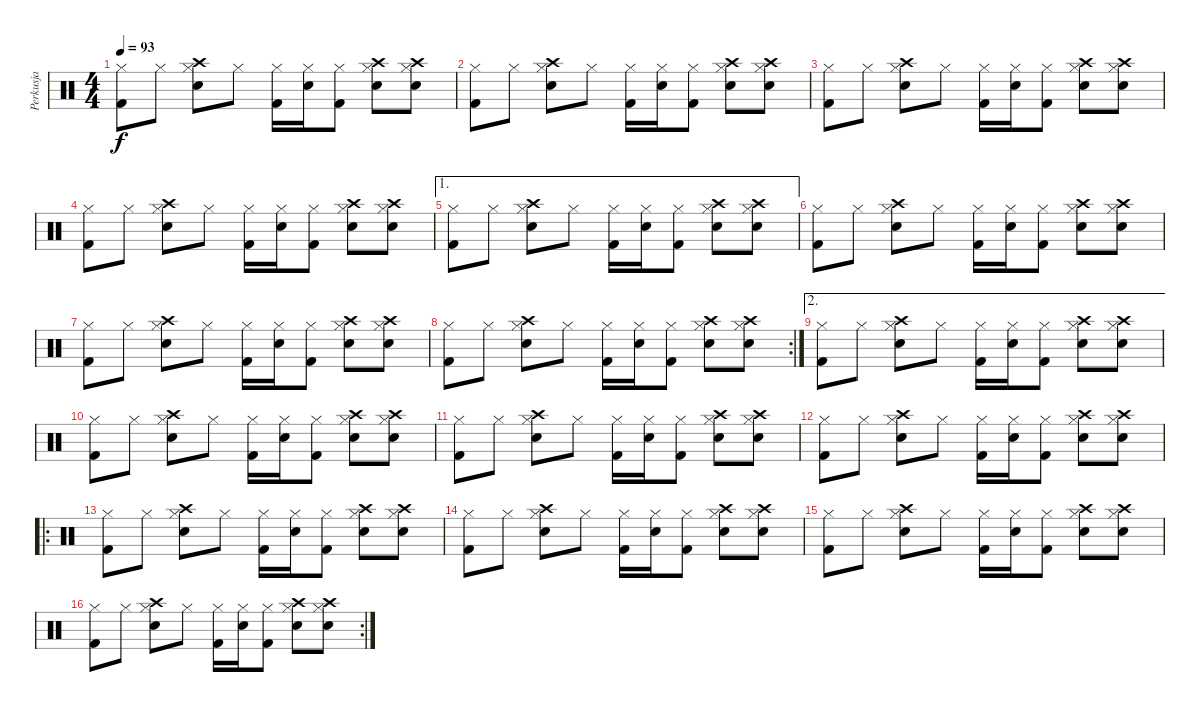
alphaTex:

\track ("Perkusja" "Perkusja") {instrument percussion}
\staff {score}
\articulation defaults
\ts (4 4)
\tempo 93
\clef neutral
\ks c
("Hi-Hat (closed)" "Kick (hit) 2").8{dy f} "Hi-Hat (closed)".8 ("Hi-Hat (closed)" "Electric Snare (hit)" "Crash high (hit)").8 "Hi-Hat (closed)".8 ("Hi-Hat (closed)" "Kick (hit) 2").16 ("Hi-Hat (closed)" "Electric Snare (hit)").16 ("Hi-Hat (closed)" "Kick (hit) 2").8 ("Hi-Hat (closed)" "Electric Snare (hit)" "Crash high (hit)").8 ("Hi-Hat (closed)" "Electric Snare (hit)" "Crash high (hit)").8 |
("Hi-Hat (closed)" "Kick (hit) 2").8 "Hi-Hat (closed)".8 ("Hi-Hat (closed)" "Electric Snare (hit)" "Crash high (hit)").8 "Hi-Hat (closed)".8 ("Hi-Hat (closed)" "Kick (hit) 2").16 ("Hi-Hat (closed)" "Electric Snare (hit)").16 ("Hi-Hat (closed)" "Kick (hit) 2").8 ("Hi-Hat (closed)" "Electric Snare (hit)" "Crash high (hit)").8 ("Hi-Hat (closed)" "Electric Snare (hit)" "Crash high (hit)").8 |
("Hi-Hat (closed)" "Kick (hit) 2").8 "Hi-Hat (closed)".8 ("Hi-Hat (closed)" "Electric Snare (hit)" "Crash high (hit)").8 "Hi-Hat (closed)".8 ("Hi-Hat (closed)" "Kick (hit) 2").16 ("Hi-Hat (closed)" "Electric Snare (hit)").16 ("Hi-Hat (closed)" "Kick (hit) 2").8 ("Hi-Hat (closed)" "Electric Snare (hit)" "Crash high (hit)").8 ("Hi-Hat (closed)" "Electric Snare (hit)" "Crash high (hit)").8 |
("Hi-Hat (closed)" "Kick (hit) 2").8 "Hi-Hat (closed)".8 ("Hi-Hat (closed)" "Electric Snare (hit)" "Crash high (hit)").8 "Hi-Hat (closed)".8 ("Hi-Hat (closed)" "Kick (hit) 2").16 ("Hi-Hat (closed)" "Electric Snare (hit)").16 ("Hi-Hat (closed)" "Kick (hit) 2").8 ("Hi-Hat (closed)" "Electric Snare (hit)" "Crash high (hit)").8 ("Hi-Hat (closed)" "Electric Snare (hit)" "Crash high (hit)").8 |
\ae 1
("Hi-Hat (closed)" "Kick (hit) 2").8 "Hi-Hat (closed)".8 ("Hi-Hat (closed)" "Electric Snare (hit)" "Crash high (hit)").8 "Hi-Hat (closed)".8 ("Hi-Hat (closed)" "Kick (hit) 2").16 ("Hi-Hat (closed)" "Electric Snare (hit)").16 ("Hi-Hat (closed)" "Kick (hit) 2").8 ("Hi-Hat (closed)" "Electric Snare (hit)" "Crash high (hit)").8 ("Hi-Hat (closed)" "Electric Snare (hit)" "Crash high (hit)").8 |
("Hi-Hat (closed)" "Kick (hit) 2").8 "Hi-Hat (closed)".8 ("Hi-Hat (closed)" "Electric Snare (hit)" "Crash high (hit)").8 "Hi-Hat (closed)".8 ("Hi-Hat (closed)" "Kick (hit) 2").16 ("Hi-Hat (closed)" "Electric Snare (hit)").16 ("Hi-Hat (closed)" "Kick (hit) 2").8 ("Hi-Hat (closed)" "Electric Snare (hit)" "Crash high (hit)").8 ("Hi-Hat (closed)" "Electric Snare (hit)" "Crash high (hit)").8 |
("Hi-Hat (closed)" "Kick (hit) 2").8 "Hi-Hat (closed)".8 ("Hi-Hat (closed)" "Electric Snare (hit)" "Crash high (hit)").8 "Hi-Hat (closed)".8 ("Hi-Hat (closed)" "Kick (hit) 2").16 ("Hi-Hat (closed)" "Electric Snare (hit)").16 ("Hi-Hat (closed)" "Kick (hit) 2").8 ("Hi-Hat (closed)" "Electric Snare (hit)" "Crash high (hit)").8 ("Hi-Hat (closed)" "Electric Snare (hit)" "Crash high (hit)").8 |
\rc 2
("Hi-Hat (closed)" "Kick (hit) 2").8 "Hi-Hat (closed)".8 ("Hi-Hat (closed)" "Electric Snare (hit)" "Crash high (hit)").8 "Hi-Hat (closed)".8 ("Hi-Hat (closed)" "Kick (hit) 2").16 ("Hi-Hat (closed)" "Electric Snare (hit)").16 ("Hi-Hat (closed)" "Kick (hit) 2").8 ("Hi-Hat (closed)" "Electric Snare (hit)" "Crash high (hit)").8 ("Hi-Hat (closed)" "Electric Snare (hit)" "Crash high (hit)").8 |
\ae 2
("Hi-Hat (closed)" "Kick (hit) 2").8 "Hi-Hat (closed)".8 ("Hi-Hat (closed)" "Electric Snare (hit)" "Crash high (hit)").8 "Hi-Hat (closed)".8 ("Hi-Hat (closed)" "Kick (hit) 2").16 ("Hi-Hat (closed)" "Electric Snare (hit)").16 ("Hi-Hat (closed)" "Kick (hit) 2").8 ("Hi-Hat (closed)" "Electric Snare (hit)" "Crash high (hit)").8 ("Hi-Hat (closed)" "Electric Snare (hit)" "Crash high (hit)").8 |
("Hi-Hat (closed)" "Kick (hit) 2").8 "Hi-Hat (closed)".8 ("Hi-Hat (closed)" "Electric Snare (hit)" "Crash high (hit)").8 "Hi-Hat (closed)".8 ("Hi-Hat (closed)" "Kick (hit) 2").16 ("Hi-Hat (closed)" "Electric Snare (hit)").16 ("Hi-Hat (closed)" "Kick (hit) 2").8 ("Hi-Hat (closed)" "Electric Snare (hit)" "Crash high (hit)").8 ("Hi-Hat (closed)" "Electric Snare (hit)" "Crash high (hit)").8 |
("Hi-Hat (closed)" "Kick (hit) 2").8 "Hi-Hat (closed)".8 ("Hi-Hat (closed)" "Electric Snare (hit)" "Crash high (hit)").8 "Hi-Hat (closed)".8 ("Hi-Hat (closed)" "Kick (hit) 2").16 ("Hi-Hat (closed)" "Electric Snare (hit)").16 ("Hi-Hat (closed)" "Kick (hit) 2").8 ("Hi-Hat (closed)" "Electric Snare (hit)" "Crash high (hit)").8 ("Hi-Hat (closed)" "Electric Snare (hit)" "Crash high (hit)").8 |
("Hi-Hat (closed)" "Kick (hit) 2").8 "Hi-Hat (closed)".8 ("Hi-Hat (closed)" "Electric Snare (hit)" "Crash high (hit)").8 "Hi-Hat (closed)".8 ("Hi-Hat (closed)" "Kick (hit) 2").16 ("Hi-Hat (closed)" "Electric Snare (hit)").16 ("Hi-Hat (closed)" "Kick (hit) 2").8 ("Hi-Hat (closed)" "Electric Snare (hit)" "Crash high (hit)").8 ("Hi-Hat (closed)" "Electric Snare (hit)" "Crash high (hit)").8 |
\ro
("Hi-Hat (closed)" "Kick (hit) 2").8 "Hi-Hat (closed)".8 ("Hi-Hat (closed)" "Electric Snare (hit)" "Crash high (hit)").8 "Hi-Hat (closed)".8 ("Hi-Hat (closed)" "Kick (hit) 2").16 ("Hi-Hat (closed)" "Electric Snare (hit)").16 ("Hi-Hat (closed)" "Kick (hit) 2").8 ("Hi-Hat (closed)" "Electric Snare (hit)" "Crash high (hit)").8 ("Hi-Hat (closed)" "Electric Snare (hit)" "Crash high (hit)").8 |
("Hi-Hat (closed)" "Kick (hit) 2").8 "Hi-Hat (closed)".8 ("Hi-Hat (closed)" "Electric Snare (hit)" "Crash high (hit)").8 "Hi-Hat (closed)".8 ("Hi-Hat (closed)" "Kick (hit) 2").16 ("Hi-Hat (closed)" "Electric Snare (hit)").16 ("Hi-Hat (closed)" "Kick (hit) 2").8 ("Hi-Hat (closed)" "Electric Snare (hit)" "Crash high (hit)").8 ("Hi-Hat (closed)" "Electric Snare (hit)" "Crash high (hit)").8 |
("Hi-Hat (closed)" "Kick (hit) 2").8 "Hi-Hat (closed)".8 ("Hi-Hat (closed)" "Electric Snare (hit)" "Crash high (hit)").8 "Hi-Hat (closed)".8 ("Hi-Hat (closed)" "Kick (hit) 2").16 ("Hi-Hat (closed)" "Electric Snare (hit)").16 ("Hi-Hat (closed)" "Kick (hit) 2").8 ("Hi-Hat (closed)" "Electric Snare (hit)" "Crash high (hit)").8 ("Hi-Hat (closed)" "Electric Snare (hit)" "Crash high (hit)").8 |
\rc 2
("Hi-Hat (closed)" "Kick (hit) 2").8 "Hi-Hat (closed)".8 ("Hi-Hat (closed)" "Electric Snare (hit)" "Crash high (hit)").8 "Hi-Hat (closed)".8 ("Hi-Hat (closed)" "Kick (hit) 2").16 ("Hi-Hat (closed)" "Electric Snare (hit)").16 ("Hi-Hat (closed)" "Kick (hit) 2").8 ("Hi-Hat (closed)" "Electric Snare (hit)" "Crash high (hit)").8 ("Hi-Hat (closed)" "Electric Snare (hit)" "Crash high (hit)").8
